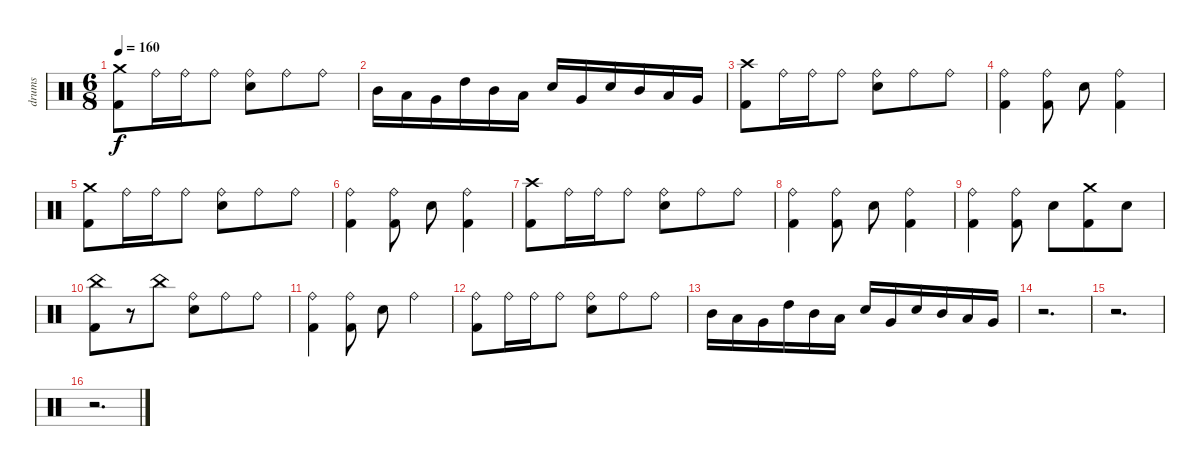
\track ("drums" "drums") {instrument percussion}
\staff {score}
\articulation defaults
\ts (6 8)
\tempo 160
\clef neutral
\ks c
("Kick (hit) 2" "Crash medium (hit)").8{dy f} "Ride (bell)".16 "Ride (bell)".16 "Ride (bell)".8 ("Electric Snare (hit)" "Ride (bell)").8 "Ride (bell)".8 "Ride (bell)".8 |
"Mid Tom (hit)".16 "Low Tom (hit)".16 "Very Low Tom (hit)".16 "High Tom (hit)".16 "Mid Tom (hit)".16 "Low Tom (hit)".16 "Electric Snare (hit)".16 "Very Low Tom (hit)".16 "Electric Snare (hit)".16 "Mid Tom (hit)".16 "Low Tom (hit)".16 "Very Low Tom (hit)".16 |
("Kick (hit) 2" "Crash high (hit)").8 "Ride (bell)".16 "Ride (bell)".16 "Ride (bell)".8 ("Ride (bell)" "Electric Snare (hit)").8 "Ride (bell)".8 "Ride (bell)".8 |
("Ride (bell)" "Kick (hit) 2").4 ("Kick (hit) 2" "Ride (bell)").8 "Electric Snare (hit)".8 ("Kick (hit) 2" "Ride (bell)").4 |
("Kick (hit) 2" "Crash medium (hit)").8 "Ride (bell)".16 "Ride (bell)".16 "Ride (bell)".8 ("Ride (bell)" "Electric Snare (hit)").8 "Ride (bell)".8 "Ride (bell)".8 |
("Ride (bell)" "Kick (hit) 2").4 ("Kick (hit) 2" "Ride (bell)").8 "Electric Snare (hit)".8 ("Kick (hit) 2" "Ride (bell)").4 |
("Kick (hit) 2" "Crash high (hit)").8 "Ride (bell)".16 "Ride (bell)".16 "Ride (bell)".8 ("Electric Snare (hit)" "Ride (bell)").8 "Ride (bell)".8 "Ride (bell)".8 |
("Kick (hit) 2" "Ride (bell)").4 ("Kick (hit) 2" "Ride (bell)").8 "Electric Snare (hit)".8 ("Kick (hit) 2" "Ride (bell)").4 |
("Ride (bell)" "Kick (hit) 2").4 ("Ride (bell)" "Kick (hit) 2").8 "Electric Snare (hit)".8 ("Crash medium (hit)" "Kick (hit) 2").8 "Electric Snare (hit)".8 |
("Kick (hit) 2" "China (hit)").8 r.8 "China (hit)".8 ("Electric Snare (hit)" "Ride (bell)").8 "Ride (bell)".8 "Ride (bell)".8 |
("Kick (hit) 2" "Ride (bell)").4 ("Kick (hit) 2" "Ride (bell)").8 "Electric Snare (hit)".8 "Ride (bell)".4 |
("Kick (hit) 2" "Ride (bell)").8 "Ride (bell)".16 "Ride (bell)".16 "Ride (bell)".8 ("Electric Snare (hit)" "Ride (bell)").8 "Ride (bell)".8 "Ride (bell)".8 |
"Mid Tom (hit)".16 "Low Tom (hit)".16 "Very Low Tom (hit)".16 "High Tom (hit)".16 "Mid Tom (hit)".16 "Low Tom (hit)".16 "Electric Snare (hit)".16 "Very Low Tom (hit)".16 "Electric Snare (hit)".16 "Mid Tom (hit)".16 "Low Tom (hit)".16 "Very Low Tom (hit)".16 |
r.2{d} |
r.2{d} |
r.2{d}
